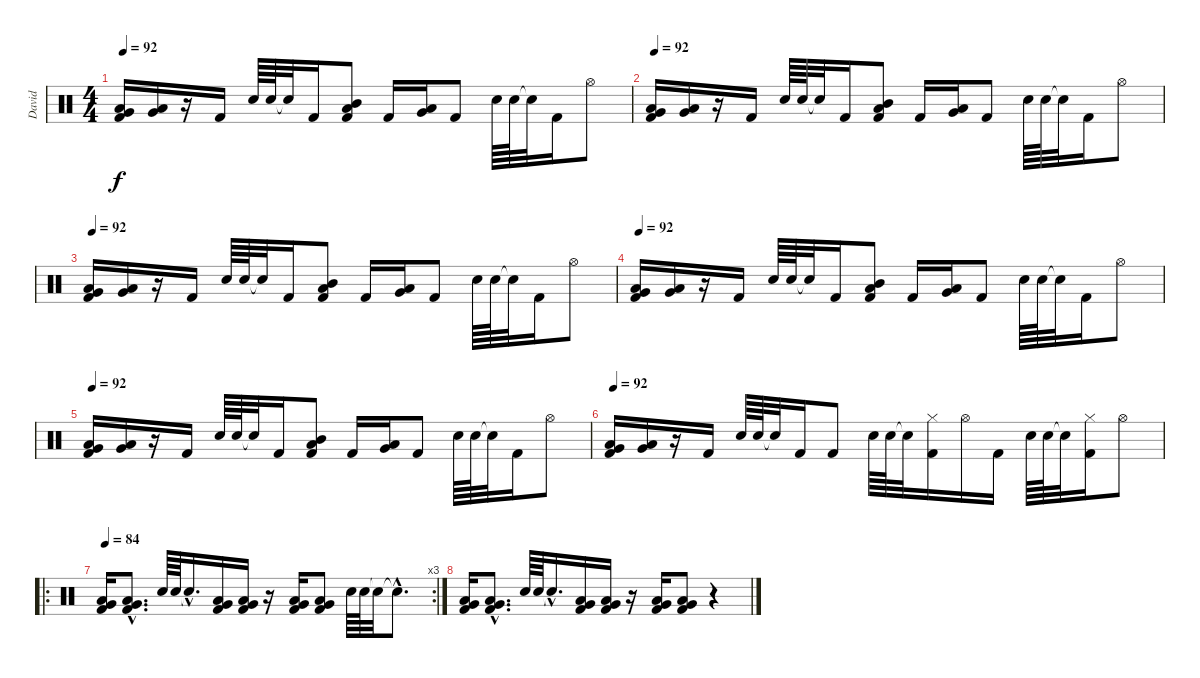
\track ("David" "David") {instrument percussion}
\staff {score}
\articulation defaults
\ts (4 4)
\tempo 92
\clef neutral
\ks c
("Low Tom (hit)" "Very Low Tom (hit)" "Kick (hit) 2").16{dy f} ("Low Tom (hit)" "Very Low Tom (hit)").16 r.16 "Kick (hit) 2".16 "Snare (hit) 2".64 "Snare (hit) 2".64 "Snare (hit)"{t}.32 "Kick (hit) 2".16 ("Mid Tom (hit)" "Low Tom (hit)" "Kick (hit) 2").8 "Kick (hit) 2".16 ("Low Tom (hit)" "Very Low Tom (hit)").16 "Kick (hit) 2".8 "Snare (hit) 2".64 "Snare (hit) 2".64 "Snare (hit)"{t}.32 "Kick (hit) 2".16 "Hi-Hat (open)".8 |
\tempo 92
("Low Tom (hit)" "Very Low Tom (hit)" "Kick (hit) 2").16 ("Low Tom (hit)" "Very Low Tom (hit)").16 r.16 "Kick (hit) 2".16 "Snare (hit) 2".64 "Snare (hit) 2".64 "Snare (hit)"{t}.32 "Kick (hit) 2".16 ("Mid Tom (hit)" "Low Tom (hit)" "Kick (hit) 2").8 "Kick (hit) 2".16 ("Low Tom (hit)" "Very Low Tom (hit)").16 "Kick (hit) 2".8 "Snare (hit) 2".64 "Snare (hit) 2".64 "Snare (hit)"{t}.32 "Kick (hit) 2".16 "Hi-Hat (open)".8 |
\tempo 92
("Low Tom (hit)" "Very Low Tom (hit)" "Kick (hit) 2").16 ("Low Tom (hit)" "Very Low Tom (hit)").16 r.16 "Kick (hit) 2".16 "Snare (hit) 2".64 "Snare (hit) 2".64 "Snare (hit)"{t}.32 "Kick (hit) 2".16 ("Mid Tom (hit)" "Low Tom (hit)" "Kick (hit) 2").8 "Kick (hit) 2".16 ("Low Tom (hit)" "Very Low Tom (hit)").16 "Kick (hit) 2".8 "Snare (hit) 2".64 "Snare (hit) 2".64 "Snare (hit)"{t}.32 "Kick (hit) 2".16 "Hi-Hat (open)".8 |
\tempo 92
("Low Tom (hit)" "Very Low Tom (hit)" "Kick (hit) 2").16 ("Low Tom (hit)" "Very Low Tom (hit)").16 r.16 "Kick (hit) 2".16 "Snare (hit) 2".64 "Snare (hit) 2".64 "Snare (hit)"{t}.32 "Kick (hit) 2".16 ("Mid Tom (hit)" "Low Tom (hit)" "Kick (hit) 2").8 "Kick (hit) 2".16 ("Low Tom (hit)" "Very Low Tom (hit)").16 "Kick (hit) 2".8 "Snare (hit) 2".64 "Snare (hit) 2".64 "Snare (hit)"{t}.32 "Kick (hit) 2".16 "Hi-Hat (open)".8 |
\tempo 92
("Low Tom (hit)" "Very Low Tom (hit)" "Kick (hit) 2").16 ("Low Tom (hit)" "Very Low Tom (hit)").16 r.16 "Kick (hit) 2".16 "Snare (hit) 2".64 "Snare (hit) 2".64 "Snare (hit)"{t}.32 "Kick (hit) 2".16 ("Mid Tom (hit)" "Low Tom (hit)" "Kick (hit) 2").8 "Kick (hit) 2".16 ("Low Tom (hit)" "Very Low Tom (hit)").16 "Kick (hit) 2".8 "Snare (hit) 2".64 "Snare (hit) 2".64 "Snare (hit)"{t}.32 "Kick (hit) 2".16 "Hi-Hat (open)".8 |
\tempo 92
("Low Tom (hit)" "Very Low Tom (hit)" "Kick (hit) 2").16 ("Low Tom (hit)" "Very Low Tom (hit)").16 r.16 "Kick (hit) 2".16 "Snare (hit) 2".64 "Snare (hit) 2".64 "Snare (hit)"{t}.32 "Kick (hit) 2".16 "Kick (hit) 2".8 "Snare (hit) 2".64 "Snare (hit) 2".64 "Snare (hit)"{t}.32 ("Hi-Hat (closed)" "Kick (hit) 2").16 "Hi-Hat (open)".16 "Kick (hit) 2".16 "Snare (hit) 2".64 "Snare (hit) 2".64 "Snare (hit)"{t}.32 ("Hi-Hat (closed)" "Kick (hit) 2").16 "Hi-Hat (open)".8 |
\ro
\rc 3
\tempo 84
("Low Tom (hit)" "Very Low Tom (hit)" "Kick (hit) 2").16 ("Low Tom (hit)"{hac} "Very Low Tom (hit)"{hac} "Kick (hit) 2"{hac}).8{d} "Snare (hit) 2".64 "Snare (hit) 2".64 "Snare (hit)"{hac t}.16{d} ("Low Tom (hit)" "Very Low Tom (hit)" "Kick (hit) 2").16 ("Low Tom (hit)" "Very Low Tom (hit)" "Kick (hit) 2").16 r.16 ("Low Tom (hit)" "Very Low Tom (hit)" "Kick (hit) 2").16 ("Low Tom (hit)" "Very Low Tom (hit)" "Kick (hit) 2").8 "Snare (hit) 2".64 "Snare (hit) 2".64 "Snare (hit)"{t}.32 "Snare (hit)"{hac t}.8{d} |
("Low Tom (hit)" "Very Low Tom (hit)" "Kick (hit) 2").16 ("Low Tom (hit)"{hac} "Very Low Tom (hit)"{hac} "Kick (hit) 2"{hac}).8{d} "Snare (hit) 2".64 "Snare (hit) 2".64 "Snare (hit)"{hac t}.16{d} ("Low Tom (hit)" "Very Low Tom (hit)" "Kick (hit) 2").16 ("Low Tom (hit)" "Very Low Tom (hit)" "Kick (hit) 2").16 r.16 ("Low Tom (hit)" "Very Low Tom (hit)" "Kick (hit) 2").16 ("Low Tom (hit)" "Very Low Tom (hit)" "Kick (hit) 2").8 r.4
